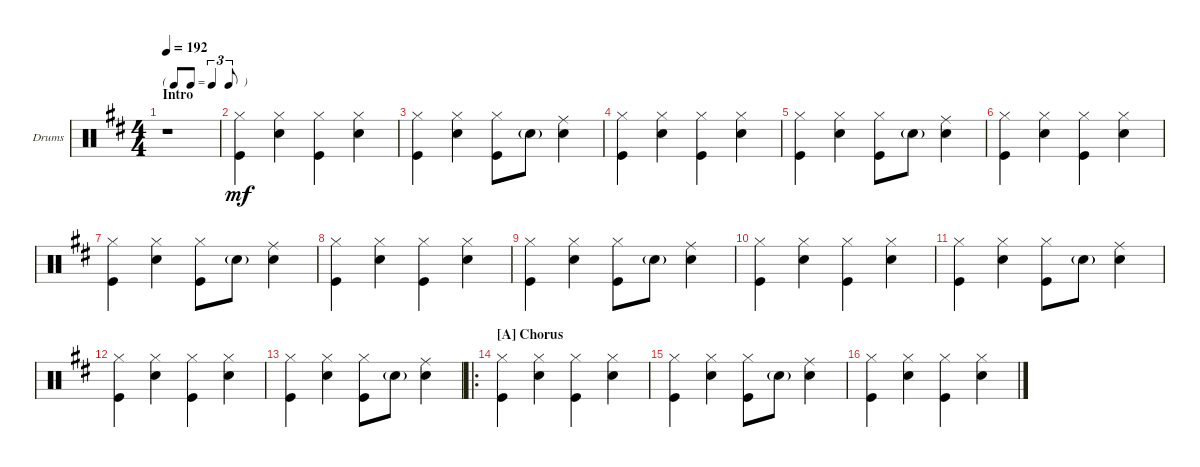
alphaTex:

\defaultSystemsLayout 4
\bracketExtendMode groupsimilarinstruments
\firstSystemTrackNameOrientation horizontal
\otherSystemsTrackNameOrientation horizontal
\track ("Drumkit" "Drums") {instrument percussion}
\staff {score}
\articulation defaults
\ts (4 4)
\tf triplet8th
\section ("" "Intro")
\tempo 192
\clef neutral
\ks d
r.1{dy mf} |
("Kick (hit)" "Hi-Hat (closed)").4 ("Snare (hit) 2" "Hi-Hat (closed)").4 ("Kick (hit)" "Hi-Hat (closed)").4 ("Snare (hit) 2" "Hi-Hat (closed)").4 |
("Kick (hit)" "Hi-Hat (closed)").4 ("Snare (hit) 2" "Hi-Hat (closed)").4 ("Kick (hit)" "Hi-Hat (closed)").8 "Snare (hit) 2"{g}.8 ("Snare (hit) 2" "Ride (middle)").4 |
("Kick (hit)" "Hi-Hat (closed)").4 ("Snare (hit) 2" "Hi-Hat (closed)").4 ("Kick (hit)" "Hi-Hat (closed)").4 ("Snare (hit) 2" "Hi-Hat (closed)").4 |
("Kick (hit)" "Hi-Hat (closed)").4 ("Snare (hit) 2" "Hi-Hat (closed)").4 ("Kick (hit)" "Hi-Hat (closed)").8 "Snare (hit) 2"{g}.8 ("Snare (hit) 2" "Ride (middle)").4 |
("Kick (hit)" "Hi-Hat (closed)").4 ("Snare (hit) 2" "Hi-Hat (closed)").4 ("Kick (hit)" "Hi-Hat (closed)").4 ("Snare (hit) 2" "Hi-Hat (closed)").4 |
("Kick (hit)" "Hi-Hat (closed)").4 ("Snare (hit) 2" "Hi-Hat (closed)").4 ("Kick (hit)" "Hi-Hat (closed)").8 "Snare (hit) 2"{g}.8 ("Snare (hit) 2" "Ride (middle)").4 |
("Kick (hit)" "Hi-Hat (closed)").4 ("Snare (hit) 2" "Hi-Hat (closed)").4 ("Kick (hit)" "Hi-Hat (closed)").4 ("Snare (hit) 2" "Hi-Hat (closed)").4 |
("Kick (hit)" "Hi-Hat (closed)").4 ("Snare (hit) 2" "Hi-Hat (closed)").4 ("Kick (hit)" "Hi-Hat (closed)").8 "Snare (hit) 2"{g}.8 ("Snare (hit) 2" "Ride (middle)").4 |
("Kick (hit)" "Hi-Hat (closed)").4 ("Snare (hit) 2" "Hi-Hat (closed)").4 ("Kick (hit)" "Hi-Hat (closed)").4 ("Snare (hit) 2" "Hi-Hat (closed)").4 |
("Kick (hit)" "Hi-Hat (closed)").4 ("Snare (hit) 2" "Hi-Hat (closed)").4 ("Kick (hit)" "Hi-Hat (closed)").8 "Snare (hit) 2"{g}.8 ("Snare (hit) 2" "Ride (middle)").4 |
("Kick (hit)" "Hi-Hat (closed)").4 ("Snare (hit) 2" "Hi-Hat (closed)").4 ("Kick (hit)" "Hi-Hat (closed)").4 ("Snare (hit) 2" "Hi-Hat (closed)").4 |
("Kick (hit)" "Hi-Hat (closed)").4 ("Snare (hit) 2" "Hi-Hat (closed)").4 ("Kick (hit)" "Hi-Hat (closed)").8 "Snare (hit) 2"{g}.8 ("Snare (hit) 2" "Ride (middle)").4 |
\ro
\section ("A" "Chorus")
("Kick (hit)" "Hi-Hat (closed)").4 ("Snare (hit) 2" "Hi-Hat (closed)").4 ("Kick (hit)" "Hi-Hat (closed)").4 ("Snare (hit) 2" "Hi-Hat (closed)").4 |
("Kick (hit)" "Hi-Hat (closed)").4 ("Snare (hit) 2" "Hi-Hat (closed)").4 ("Kick (hit)" "Hi-Hat (closed)").8 "Snare (hit) 2"{g}.8 ("Snare (hit) 2" "Ride (middle)").4 |
("Kick (hit)" "Hi-Hat (closed)").4 ("Snare (hit) 2" "Hi-Hat (closed)").4 ("Kick (hit)" "Hi-Hat (closed)").4 ("Snare (hit) 2" "Hi-Hat (closed)").4
